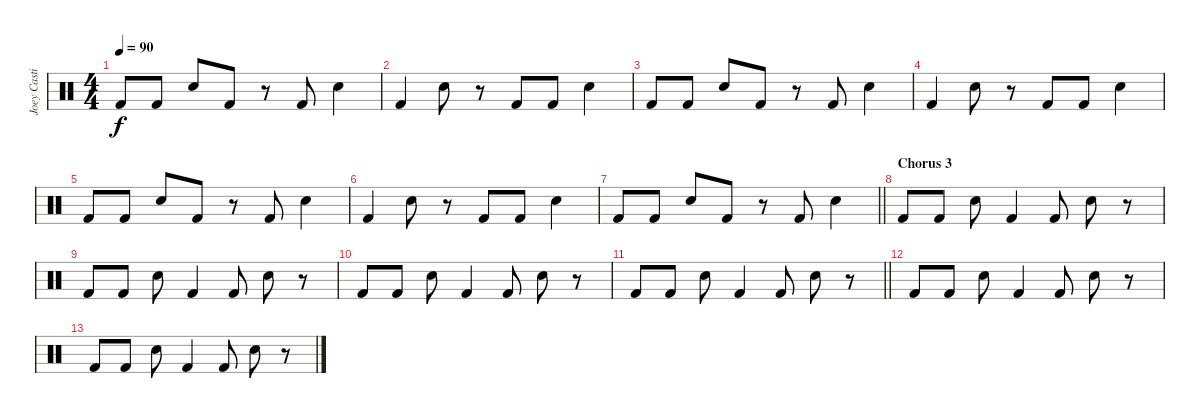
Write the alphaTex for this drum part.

\track ("Joey Castillo" "Joey Casti") {instrument percussion}
\staff {score}
\articulation defaults
\ts (4 4)
\tempo 90
\clef neutral
\ks c "Kick (hit) 2".8{dy f} "Kick (hit) 2".8 "Electric Snare (hit)".8 "Kick (hit) 2".8
r.8 "Kick (hit) 2".8 "Electric Snare (hit)".4 |
"Kick (hit) 2".4 "Electric Snare (hit)".8 r.8 "Kick (hit) 2".8 "Kick (hit) 2".8 "Electric Snare (hit)".4 |
"Kick (hit) 2".8 "Kick (hit) 2".8 "Electric Snare (hit)".8 "Kick (hit) 2".8 r.8 "Kick (hit) 2".8 "Electric Snare (hit)".4 |
"Kick (hit) 2".4 "Electric Snare (hit)".8 r.8 "Kick (hit) 2".8 "Kick (hit) 2".8 "Electric Snare (hit)".4 |
"Kick (hit) 2".8 "Kick (hit) 2".8 "Electric Snare (hit)".8 "Kick (hit) 2".8 r.8 "Kick (hit) 2".8 "Electric Snare (hit)".4 |
"Kick (hit) 2".4 "Electric Snare (hit)".8 r.8 "Kick (hit) 2".8 "Kick (hit) 2".8 "Electric Snare (hit)".4 |
\barLineRight lightlight "Kick (hit) 2".8 "Kick (hit) 2".8 "Electric Snare (hit)".8 "Kick (hit) 2".8
r.8 "Kick (hit) 2".8 "Electric Snare (hit)".4 |
\section ("" "Chorus 3")
"Kick (hit) 2".8 "Kick (hit) 2".8 "Electric Snare (hit)".8 "Kick (hit) 2".4 "Kick (hit) 2".8 "Electric Snare (hit)".8 r.8 |
"Kick (hit) 2".8 "Kick (hit) 2".8 "Electric Snare (hit)".8 "Kick (hit) 2".4 "Kick (hit) 2".8 "Electric Snare (hit)".8 r.8 |
"Kick (hit) 2".8 "Kick (hit) 2".8 "Electric Snare (hit)".8 "Kick (hit) 2".4 "Kick (hit) 2".8 "Electric Snare (hit)".8 r.8 |
\barLineRight lightlight "Kick (hit) 2".8 "Kick (hit) 2".8 "Electric Snare (hit)".8 "Kick (hit) 2".4 "Kick (hit) 2".8 "Electric Snare (hit)".8
r.8 |
"Kick (hit) 2".8 "Kick (hit) 2".8 "Electric Snare (hit)".8 "Kick (hit) 2".4 "Kick (hit) 2".8 "Electric Snare (hit)".8 r.8 |
"Kick (hit) 2".8 "Kick (hit) 2".8 "Electric Snare (hit)".8 "Kick (hit) 2".4 "Kick (hit) 2".8 "Electric Snare (hit)".8 r.8
